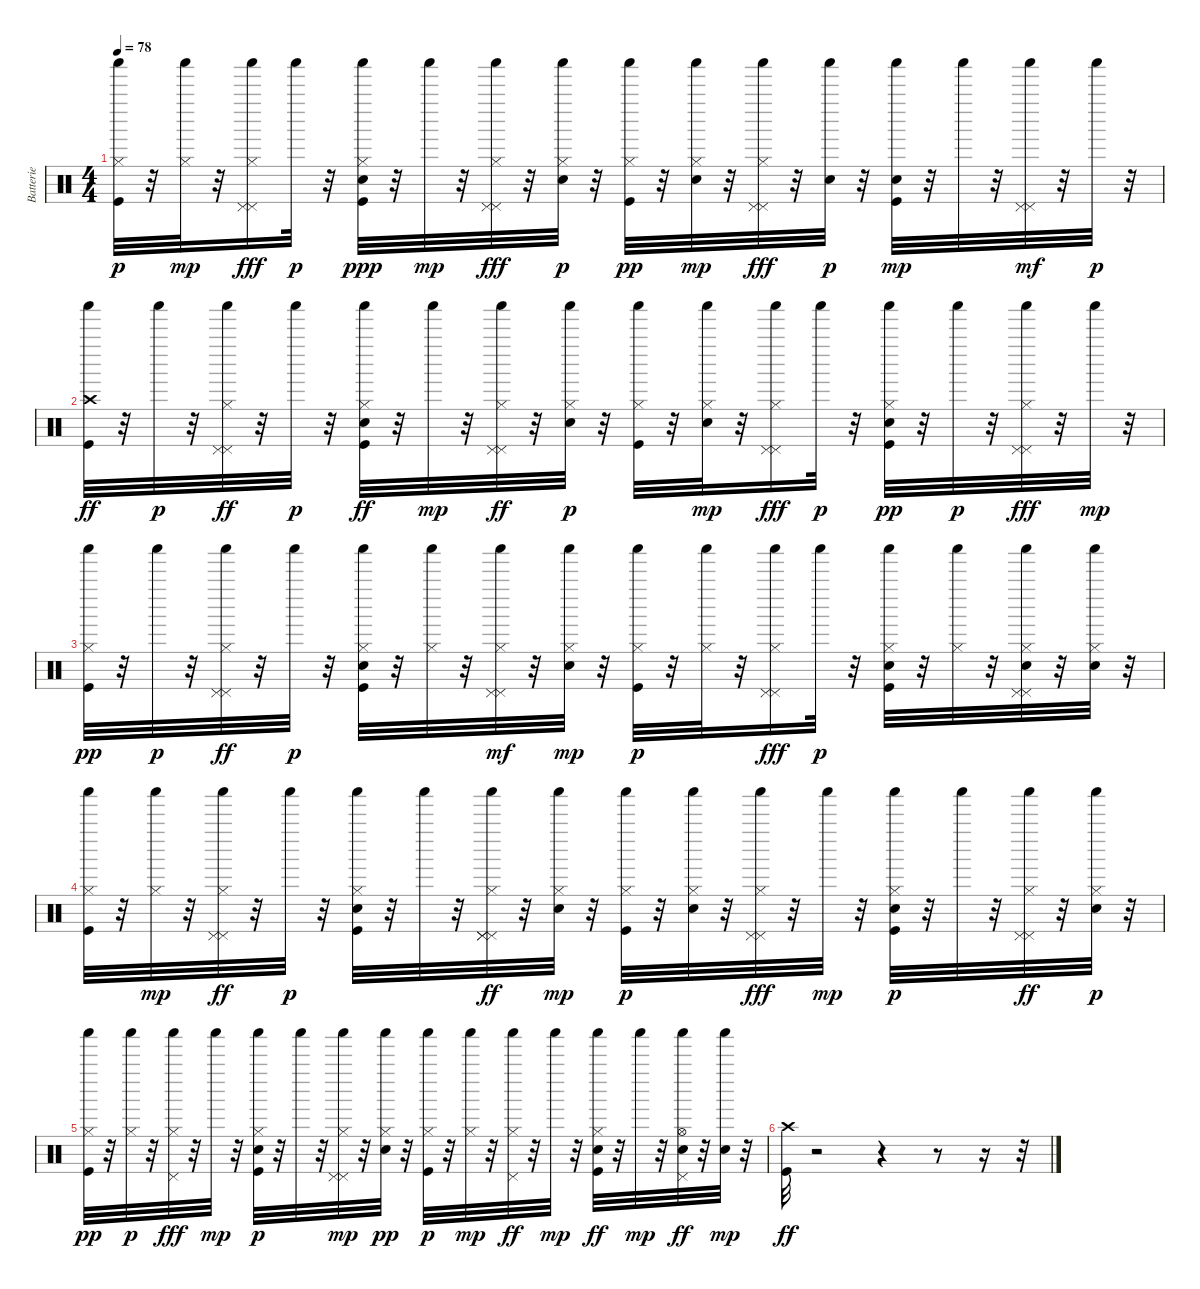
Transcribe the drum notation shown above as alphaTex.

\track ("Batterie" "Batterie") {instrument percussion}
\staff {score}
\articulation defaults
\ts (4 4)
\tempo 78
\clef neutral
\ks c
("Hi-Hat (closed)" "Kick (hit)" "Shaker (hit)").32{dy p} r.32 ("Hi-Hat (closed)" "Shaker (hit)").32{dy mp} r.32 ("Pedal Hi-Hat (hit)" "Hi-Hat (closed)" "Shaker (hit)" "Pedal Hi-Hat (hit)").16{dy fff} "Shaker (hit)".32{dy p} r.32 ("Electric Snare (hit)" "Hi-Hat (closed)" "Kick (hit)" "Shaker (hit)").32{dy ppp} r.32 "Shaker (hit)".32{dy mp} r.32 ("Pedal Hi-Hat (hit)" "Pedal Hi-Hat (hit)" "Hi-Hat (closed)" "Shaker (hit)").32{dy fff} r.32 ("Electric Snare (hit)" "Hi-Hat (closed)" "Shaker (hit)").32{dy p} r.32 ("Hi-Hat (closed)" "Kick (hit)" "Shaker (hit)").32{dy pp} r.32 ("Electric Snare (hit)" "Hi-Hat (closed)" "Shaker (hit)").32{dy mp} r.32 ("Pedal Hi-Hat (hit)" "Hi-Hat (closed)" "Pedal Hi-Hat (hit)" "Shaker (hit)").32{dy fff} r.32 ("Electric Snare (hit)" "Shaker (hit)").32{dy p} r.32 ("Electric Snare (hit)" "Kick (hit)" "Shaker (hit)").32{dy mp} r.32 "Shaker (hit)".32 r.32 ("Pedal Hi-Hat (hit)" "Pedal Hi-Hat (hit)" "Shaker (hit)").32{dy mf} r.32 "Shaker (hit)".32{dy p} r.32 |
("Kick (hit)" "Shaker (hit)" "Crash high (hit)").32{dy ff} r.32 "Shaker (hit)".32{dy p} r.32 ("Pedal Hi-Hat (hit)" "Pedal Hi-Hat (hit)" "Shaker (hit)" "Hi-Hat (closed)").32{dy ff} r.32 "Shaker (hit)".32{dy p} r.32 ("Electric Snare (hit)" "Kick (hit)" "Shaker (hit)" "Hi-Hat (closed)").32{dy ff} r.32 "Shaker (hit)".32{dy mp} r.32 ("Pedal Hi-Hat (hit)" "Pedal Hi-Hat (hit)" "Hi-Hat (closed)" "Shaker (hit)").32{dy ff} r.32 ("Hi-Hat (closed)" "Electric Snare (hit)" "Shaker (hit)").32{dy p} r.32 ("Hi-Hat (closed)" "Kick (hit)" "Shaker (hit)").32 r.32 ("Electric Snare (hit)" "Hi-Hat (closed)" "Shaker (hit)").32{dy mp} r.32 ("Pedal Hi-Hat (hit)" "Hi-Hat (closed)" "Shaker (hit)" "Pedal Hi-Hat (hit)").16{dy fff} "Shaker (hit)".32{dy p} r.32 ("Electric Snare (hit)" "Hi-Hat (closed)" "Kick (hit)" "Shaker (hit)").32{dy pp} r.32 "Shaker (hit)".32{dy p} r.32 ("Pedal Hi-Hat (hit)" "Hi-Hat (closed)" "Shaker (hit)" "Pedal Hi-Hat (hit)").32{dy fff} r.32 "Shaker (hit)".32{dy mp} r.32 |
("Hi-Hat (closed)" "Kick (hit)" "Shaker (hit)").32{dy pp} r.32 "Shaker (hit)".32{dy p} r.32 ("Pedal Hi-Hat (hit)" "Pedal Hi-Hat (hit)" "Hi-Hat (closed)" "Shaker (hit)").32{dy ff} r.32 "Shaker (hit)".32{dy p} r.32 ("Electric Snare (hit)" "Hi-Hat (closed)" "Kick (hit)" "Shaker (hit)").32 r.32 ("Hi-Hat (closed)" "Shaker (hit)").32 r.32 ("Pedal Hi-Hat (hit)" "Pedal Hi-Hat (hit)" "Hi-Hat (closed)" "Shaker (hit)").32{dy mf} r.32 ("Electric Snare (hit)" "Hi-Hat (closed)" "Shaker (hit)").32{dy mp} r.32 ("Kick (hit)" "Hi-Hat (closed)" "Shaker (hit)").32{dy p} r.32 ("Hi-Hat (closed)" "Shaker (hit)").32 r.32 ("Hi-Hat (closed)" "Pedal Hi-Hat (hit)" "Shaker (hit)" "Pedal Hi-Hat (hit)").16{dy fff} "Shaker (hit)".32{dy p} r.32 ("Electric Snare (hit)" "Kick (hit)" "Hi-Hat (closed)" "Shaker (hit)").32 r.32 ("Hi-Hat (closed)" "Shaker (hit)").32 r.32 ("Pedal Hi-Hat (hit)" "Hi-Hat (closed)" "Pedal Hi-Hat (hit)" "Shaker (hit)" "Electric Snare (hit)").32 r.32 ("Electric Snare (hit)" "Hi-Hat (closed)" "Shaker (hit)").32 r.32 |
("Kick (hit)" "Hi-Hat (closed)" "Shaker (hit)").32 r.32 ("Shaker (hit)" "Hi-Hat (closed)").32{dy mp} r.32 ("Pedal Hi-Hat (hit)" "Pedal Hi-Hat (hit)" "Hi-Hat (closed)" "Shaker (hit)").32{dy ff} r.32 "Shaker (hit)".32{dy p} r.32 ("Electric Snare (hit)" "Hi-Hat (closed)" "Kick (hit)" "Shaker (hit)").32 r.32 "Shaker (hit)".32 r.32 ("Pedal Hi-Hat (hit)" "Pedal Hi-Hat (hit)" "Pedal Hi-Hat (hit)" "Hi-Hat (closed)" "Shaker (hit)").32{dy ff} r.32 ("Electric Snare (hit)" "Hi-Hat (closed)" "Shaker (hit)").32{dy mp} r.32 ("Hi-Hat (closed)" "Kick (hit)" "Shaker (hit)").32{dy p} r.32 ("Electric Snare (hit)" "Hi-Hat (closed)" "Shaker (hit)").32 r.32 ("Pedal Hi-Hat (hit)" "Hi-Hat (closed)" "Pedal Hi-Hat (hit)" "Shaker (hit)").32{dy fff} r.32 "Shaker (hit)".32{dy mp} r.32 ("Electric Snare (hit)" "Hi-Hat (closed)" "Kick (hit)" "Shaker (hit)").32{dy p} r.32 "Shaker (hit)".32 r.32 ("Pedal Hi-Hat (hit)" "Pedal Hi-Hat (hit)" "Hi-Hat (closed)" "Shaker (hit)").32{dy ff} r.32 ("Electric Snare (hit)" "Hi-Hat (closed)" "Shaker (hit)").32{dy p} r.32 |
("Hi-Hat (closed)" "Kick (hit)" "Shaker (hit)").32{dy pp} r.32 ("Hi-Hat (closed)" "Shaker (hit)").32{dy p} r.32 ("Hi-Hat (closed)" "Pedal Hi-Hat (hit)" "Shaker (hit)").32{dy fff} r.32 "Shaker (hit)".32{dy mp} r.32 ("Electric Snare (hit)" "Hi-Hat (closed)" "Kick (hit)" "Shaker (hit)").32{dy p} r.32 "Shaker (hit)".32 r.32 ("Pedal Hi-Hat (hit)" "Pedal Hi-Hat (hit)" "Hi-Hat (closed)" "Shaker (hit)").32{dy mp} r.32 ("Hi-Hat (closed)" "Shaker (hit)" "Electric Snare (hit)").32{dy pp} r.32 ("Hi-Hat (closed)" "Kick (hit)" "Shaker (hit)").32{dy p} r.32 ("Hi-Hat (closed)" "Shaker (hit)").32{dy mp} r.32 ("Pedal Hi-Hat (hit)" "Hi-Hat (closed)" "Shaker (hit)").32{dy ff} r.32 "Shaker (hit)".32{dy mp} r.32 ("Electric Snare (hit)" "Kick (hit)" "Shaker (hit)" "Hi-Hat (closed)").32{dy ff} r.32 "Shaker (hit)".32{dy mp} r.32 ("Electric Snare (hit)" "Pedal Hi-Hat (hit)" "Shaker (hit)" "Hi-Hat (open)").32{dy ff} r.32 ("Electric Snare (hit)" "Shaker (hit)").32{dy mp} r.32 |
("Kick (hit)" "Crash high (hit)").32{dy ff} r.2 r.4 r.8 r.16 r.32
